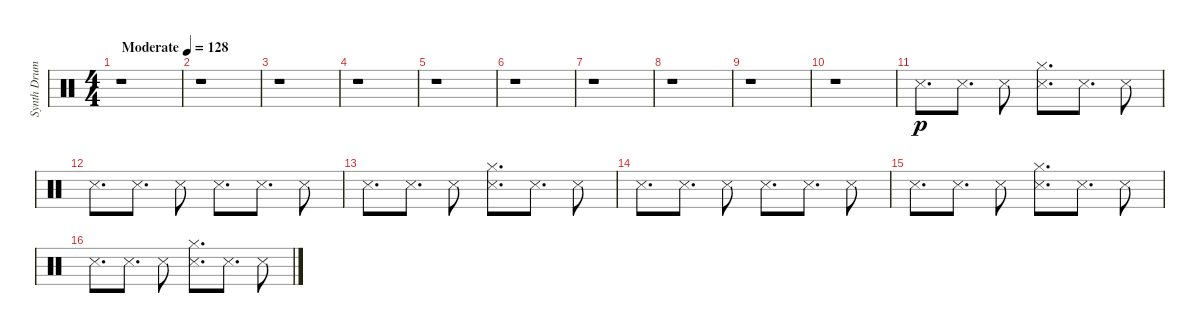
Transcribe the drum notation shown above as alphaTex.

\track ("Synth Drums" "Synth Drum") {instrument percussion}
\staff {score}
\articulation defaults
\ts (4 4)
\tempo (128 "Moderate")
\clef neutral
\ks c
r.1{dy p} |
r.1 |
r.1 |
r.1 |
r.1 |
r.1 |
r.1 |
r.1 |
r.1 |
r.1 |
"Snare (side stick) 3".8{d} "Snare (side stick) 3".8{d} "Snare (side stick) 3".8 ("Hi-Hat (closed)" "Snare (side stick) 3").8{d} "Snare (side stick) 3".8{d} "Snare (side stick) 3".8 |
"Snare (side stick) 3".8{d} "Snare (side stick) 3".8{d} "Snare (side stick) 3".8 "Snare (side stick) 3".8{d} "Snare (side stick) 3".8{d} "Snare (side stick) 3".8 |
"Snare (side stick) 3".8{d} "Snare (side stick) 3".8{d} "Snare (side stick) 3".8 ("Hi-Hat (closed)" "Snare (side stick) 3").8{d} "Snare (side stick) 3".8{d} "Snare (side stick) 3".8 |
"Snare (side stick) 3".8{d} "Snare (side stick) 3".8{d} "Snare (side stick) 3".8 "Snare (side stick) 3".8{d} "Snare (side stick) 3".8{d} "Snare (side stick) 3".8 |
"Snare (side stick) 3".8{d} "Snare (side stick) 3".8{d} "Snare (side stick) 3".8 ("Hi-Hat (closed)" "Snare (side stick) 3").8{d} "Snare (side stick) 3".8{d} "Snare (side stick) 3".8 |
"Snare (side stick) 3".8{d} "Snare (side stick) 3".8{d} "Snare (side stick) 3".8 ("Hi-Hat (closed)" "Snare (side stick) 3").8{d} "Snare (side stick) 3".8{d} "Snare (side stick) 3".8
